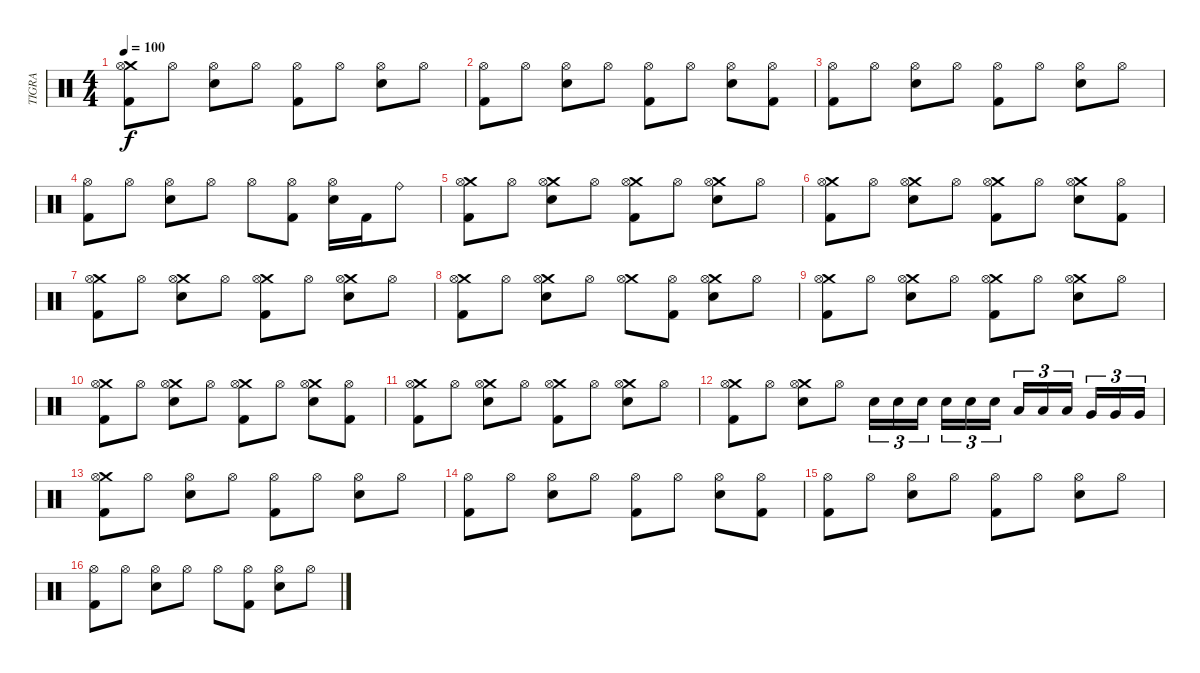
\track ("TIGRA" "TIGRA") {instrument percussion}
\staff {score}
\articulation defaults
\ts (4 4)
\tempo 100
\clef neutral
\ks c
("Crash medium (hit)" "Hi-Hat (open)" "Kick (hit) 2").8{dy f} "Hi-Hat (open)".8 ("Hi-Hat (open)" "Snare (hit) 2").8 "Hi-Hat (open)".8 ("Hi-Hat (open)" "Kick (hit) 2").8 "Hi-Hat (open)".8 ("Hi-Hat (open)" "Snare (hit) 2").8 "Hi-Hat (open)".8 |
("Hi-Hat (open)" "Kick (hit) 2").8 "Hi-Hat (open)".8 ("Hi-Hat (open)" "Snare (hit) 2").8 "Hi-Hat (open)".8 ("Hi-Hat (open)" "Kick (hit) 2").8 "Hi-Hat (open)".8 ("Hi-Hat (open)" "Snare (hit) 2").8 ("Hi-Hat (open)" "Kick (hit) 2").8 |
("Hi-Hat (open)" "Kick (hit) 2").8 "Hi-Hat (open)".8 ("Hi-Hat (open)" "Snare (hit) 2").8 "Hi-Hat (open)".8 ("Hi-Hat (open)" "Kick (hit) 2").8 "Hi-Hat (open)".8 ("Hi-Hat (open)" "Snare (hit) 2").8 "Hi-Hat (open)".8 |
("Hi-Hat (open)" "Kick (hit) 2").8 "Hi-Hat (open)".8 ("Hi-Hat (open)" "Snare (hit) 2").8 "Hi-Hat (open)".8 "Hi-Hat (open)".8 ("Hi-Hat (open)" "Kick (hit) 2").8 ("Hi-Hat (open)" "Snare (hit) 2").16 "Kick (hit) 2".16 "Ride (bell)".8 |
("Crash medium (hit)" "Hi-Hat (open)" "Kick (hit) 2").8 "Hi-Hat (open)".8 ("Crash medium (hit)" "Hi-Hat (open)" "Snare (hit) 2").8 "Hi-Hat (open)".8 ("Crash medium (hit)" "Hi-Hat (open)" "Kick (hit) 2").8 "Hi-Hat (open)".8 ("Crash medium (hit)" "Hi-Hat (open)" "Snare (hit) 2").8 "Hi-Hat (open)".8 |
("Crash medium (hit)" "Hi-Hat (open)" "Kick (hit) 2").8 "Hi-Hat (open)".8 ("Crash medium (hit)" "Hi-Hat (open)" "Snare (hit) 2").8 "Hi-Hat (open)".8 ("Crash medium (hit)" "Hi-Hat (open)" "Kick (hit) 2").8 "Hi-Hat (open)".8 ("Crash medium (hit)" "Hi-Hat (open)" "Snare (hit) 2").8 ("Hi-Hat (open)" "Kick (hit) 2").8 |
("Crash medium (hit)" "Hi-Hat (open)" "Kick (hit) 2").8 "Hi-Hat (open)".8 ("Crash medium (hit)" "Hi-Hat (open)" "Snare (hit) 2").8 "Hi-Hat (open)".8 ("Crash medium (hit)" "Hi-Hat (open)" "Kick (hit) 2").8 "Hi-Hat (open)".8 ("Crash medium (hit)" "Hi-Hat (open)" "Snare (hit) 2").8 "Hi-Hat (open)".8 |
("Crash medium (hit)" "Hi-Hat (open)" "Kick (hit) 2").8 "Hi-Hat (open)".8 ("Crash medium (hit)" "Hi-Hat (open)" "Snare (hit) 2").8 "Hi-Hat (open)".8 ("Crash medium (hit)" "Hi-Hat (open)").8 ("Hi-Hat (open)" "Kick (hit) 2").8 ("Crash medium (hit)" "Hi-Hat (open)" "Snare (hit) 2").8 "Hi-Hat (open)".8 |
("Crash medium (hit)" "Hi-Hat (open)" "Kick (hit) 2").8 "Hi-Hat (open)".8 ("Crash medium (hit)" "Hi-Hat (open)" "Snare (hit) 2").8 "Hi-Hat (open)".8 ("Crash medium (hit)" "Hi-Hat (open)" "Kick (hit) 2").8 "Hi-Hat (open)".8 ("Crash medium (hit)" "Hi-Hat (open)" "Snare (hit) 2").8 "Hi-Hat (open)".8 |
("Crash medium (hit)" "Hi-Hat (open)" "Kick (hit) 2").8 "Hi-Hat (open)".8 ("Crash medium (hit)" "Hi-Hat (open)" "Snare (hit) 2").8 "Hi-Hat (open)".8 ("Crash medium (hit)" "Hi-Hat (open)" "Kick (hit) 2").8 "Hi-Hat (open)".8 ("Crash medium (hit)" "Hi-Hat (open)" "Snare (hit) 2").8 ("Hi-Hat (open)" "Kick (hit) 2").8 |
("Crash medium (hit)" "Hi-Hat (open)" "Kick (hit) 2").8 "Hi-Hat (open)".8 ("Crash medium (hit)" "Hi-Hat (open)" "Snare (hit) 2").8 "Hi-Hat (open)".8 ("Crash medium (hit)" "Hi-Hat (open)" "Kick (hit) 2").8 "Hi-Hat (open)".8 ("Crash medium (hit)" "Hi-Hat (open)" "Snare (hit) 2").8 "Hi-Hat (open)".8 |
("Crash medium (hit)" "Hi-Hat (open)" "Kick (hit) 2").8 "Hi-Hat (open)".8 ("Crash medium (hit)" "Hi-Hat (open)" "Snare (hit) 2").8 "Hi-Hat (open)".8 "Snare (hit) 2".16{tu (3 2)} "Snare (hit) 2".16{tu (3 2)} "Snare (hit) 2".16{tu (3 2) beam splitsecondary} "Snare (hit) 2".16{tu (3 2)} "Snare (hit) 2".16{tu (3 2)} "Snare (hit) 2".16{tu (3 2)} "Low Tom (hit)".16{tu (3 2)} "Low Tom (hit)".16{tu (3 2)} "Low Tom (hit)".16{tu (3 2) beam splitsecondary} "Very Low Tom (hit)".16{tu (3 2)} "Very Low Tom (hit)".16{tu (3 2)} "Very Low Tom (hit)".16{tu (3 2)} |
("Crash medium (hit)" "Hi-Hat (open)" "Kick (hit) 2").8 "Hi-Hat (open)".8 ("Hi-Hat (open)" "Snare (hit) 2").8 "Hi-Hat (open)".8 ("Hi-Hat (open)" "Kick (hit) 2").8 "Hi-Hat (open)".8 ("Hi-Hat (open)" "Snare (hit) 2").8 "Hi-Hat (open)".8 |
("Hi-Hat (open)" "Kick (hit) 2").8 "Hi-Hat (open)".8 ("Hi-Hat (open)" "Snare (hit) 2").8 "Hi-Hat (open)".8 ("Hi-Hat (open)" "Kick (hit) 2").8 "Hi-Hat (open)".8 ("Hi-Hat (open)" "Snare (hit) 2").8 ("Hi-Hat (open)" "Kick (hit) 2").8 |
("Hi-Hat (open)" "Kick (hit) 2").8 "Hi-Hat (open)".8 ("Hi-Hat (open)" "Snare (hit) 2").8 "Hi-Hat (open)".8 ("Hi-Hat (open)" "Kick (hit) 2").8 "Hi-Hat (open)".8 ("Hi-Hat (open)" "Snare (hit) 2").8 "Hi-Hat (open)".8 |
("Hi-Hat (open)" "Kick (hit) 2").8 "Hi-Hat (open)".8 ("Hi-Hat (open)" "Snare (hit) 2").8 "Hi-Hat (open)".8 "Hi-Hat (open)".8 ("Hi-Hat (open)" "Kick (hit) 2").8 ("Hi-Hat (open)" "Snare (hit) 2").8 "Hi-Hat (open)".8
